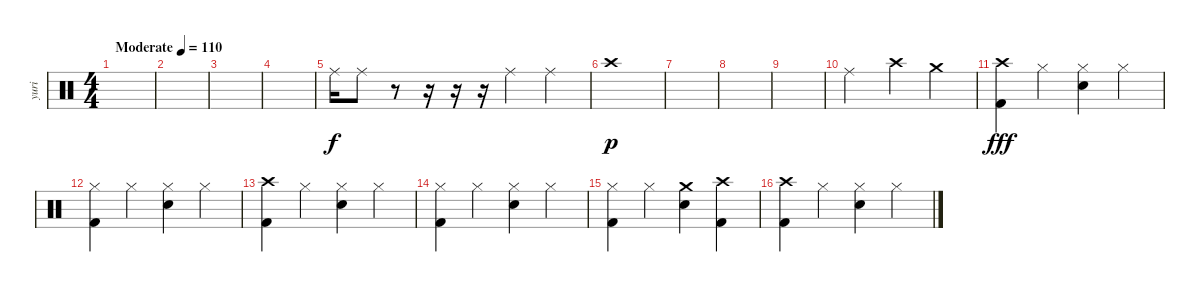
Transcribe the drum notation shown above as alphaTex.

\track ("yuri" "yuri") {instrument percussion}
\staff {score}
\articulation defaults
\ts (4 4)
\tempo (110 "Moderate")
\clef neutral
\ks c
|
|
|
|
"Ride (middle)".16 "Ride (middle)".8 r.8 r.16 r.16 r.16 "Ride (middle)".4 "Ride (middle)".4 |
"Crash high (hit)".1{dy p} |
|
|
|
"Ride (middle)".2 "Crash high (hit)".4 "Crash medium (hit)".4 |
("Crash high (hit)" "Kick (hit) 2").4{dy fff} "Hi-Hat (closed)".4 ("Hi-Hat (closed)" "Snare (hit) 2").4 "Hi-Hat (closed)".4 |
("Hi-Hat (closed)" "Kick (hit) 2").4 "Hi-Hat (closed)".4 ("Hi-Hat (closed)" "Snare (hit) 2").4 "Hi-Hat (closed)".4 |
("Crash high (hit)" "Kick (hit) 2").4 "Hi-Hat (closed)".4 ("Hi-Hat (closed)" "Snare (hit) 2").4 "Hi-Hat (closed)".4 |
("Hi-Hat (closed)" "Kick (hit) 2").4 "Hi-Hat (closed)".4 ("Hi-Hat (closed)" "Snare (hit) 2").4 "Hi-Hat (closed)".4 |
("Hi-Hat (closed)" "Kick (hit) 2").4 "Hi-Hat (closed)".4 ("Crash medium (hit)" "Snare (hit) 2").4 ("Crash high (hit)" "Kick (hit) 2").4 |
("Crash high (hit)" "Kick (hit) 2").4 "Hi-Hat (closed)".4 ("Hi-Hat (closed)" "Snare (hit) 2").4 "Hi-Hat (closed)".4
